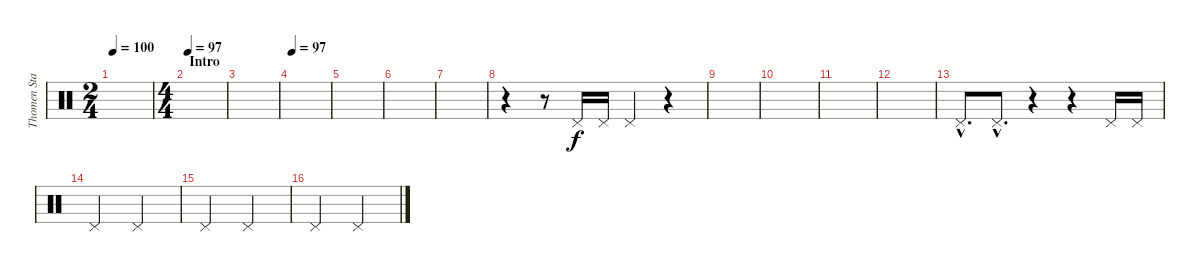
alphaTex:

\track ("Thomen Stauch" "Thomen Sta") {instrument percussion}
\staff {score}
\articulation defaults
\ts (2 4)
\tempo 100
\clef neutral
\ks c
|
\ts (4 4)
\section ("" "Intro")
\tempo 97
|
|
\tempo 97
|
|
|
|
r.4 r.8 "Pedal Hi-Hat (hit)".16 "Pedal Hi-Hat (hit)".16 "Pedal Hi-Hat (hit)".4 r.4 |
|
|
|
|
"Pedal Hi-Hat (hit)"{hac}.8{d} "Pedal Hi-Hat (hit)"{hac}.8{d} r.4 r.4 "Pedal Hi-Hat (hit)".16 "Pedal Hi-Hat (hit)".16 |
"Pedal Hi-Hat (hit)".2 "Pedal Hi-Hat (hit)".2 |
"Pedal Hi-Hat (hit)".2 "Pedal Hi-Hat (hit)".2 |
"Pedal Hi-Hat (hit)".2 "Pedal Hi-Hat (hit)".2
